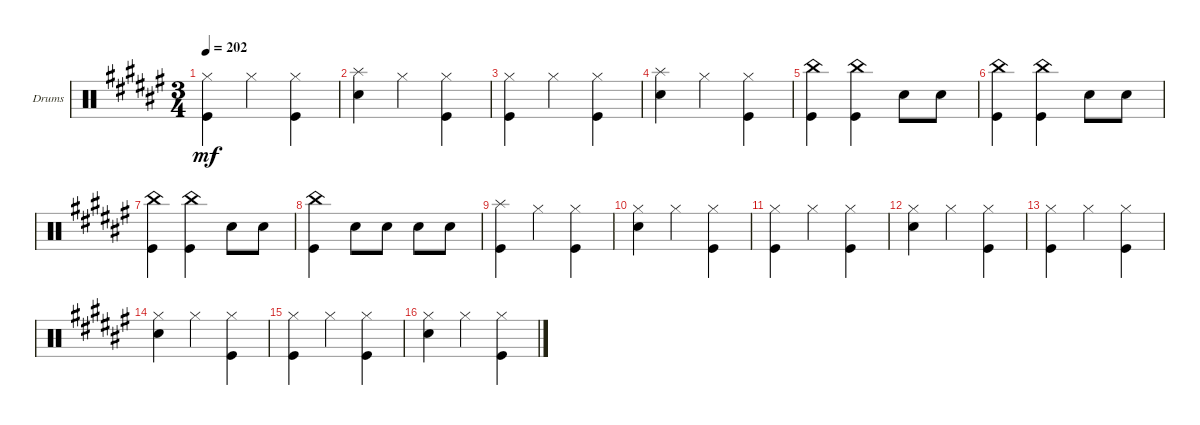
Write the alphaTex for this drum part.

\defaultSystemsLayout 4
\bracketExtendMode groupsimilarinstruments
\firstSystemTrackNameOrientation horizontal
\otherSystemsTrackNameOrientation horizontal
\track ("Drumkit" "Drums") {instrument percussion}
\staff {score}
\articulation defaults
\ts (3 4)
\tempo 202
\clef neutral
\ks f#
("Kick (hit)" "Hi-Hat (closed)").4{dy mf} "Hi-Hat (closed)".4 ("Kick (hit)" "Hi-Hat (closed)").4 |
("Snare (hit) 2" "Splash (hit)").4 "Hi-Hat (closed)".4 ("Kick (hit)" "Hi-Hat (closed)").4 |
("Kick (hit)" "Hi-Hat (closed)").4 "Hi-Hat (closed)".4 ("Kick (hit)" "Hi-Hat (closed)").4 |
("Snare (hit) 2" "Splash (hit)").4 "Hi-Hat (closed)".4 ("Kick (hit)" "Hi-Hat (closed)").4 |
("China (hit)" "Kick (hit)").4 ("China (hit)" "Kick (hit)").4 "Snare (hit) 2".8 "Snare (hit) 2".8 |
("China (hit)" "Kick (hit)").4 ("China (hit)" "Kick (hit)").4 "Snare (hit) 2".8 "Snare (hit) 2".8 |
("China (hit)" "Kick (hit)").4 ("China (hit)" "Kick (hit)").4 "Snare (hit) 2".8 "Snare (hit) 2".8 |
("China (hit)" "Kick (hit)").4 "Snare (hit) 2".8 "Snare (hit) 2".8 "Snare (hit) 2".8 "Snare (hit) 2".8 |
("Kick (hit)" "Splash (hit)").4 "Hi-Hat (closed)".4 ("Kick (hit)" "Hi-Hat (closed)").4 |
("Snare (hit) 2" "Hi-Hat (closed)").4 "Hi-Hat (closed)".4 ("Kick (hit)" "Hi-Hat (closed)").4 |
("Kick (hit)" "Hi-Hat (closed)").4 "Hi-Hat (closed)".4 ("Kick (hit)" "Hi-Hat (closed)").4 |
("Snare (hit) 2" "Hi-Hat (closed)").4 "Hi-Hat (closed)".4 ("Kick (hit)" "Hi-Hat (closed)").4 |
("Kick (hit)" "Hi-Hat (closed)").4 "Hi-Hat (closed)".4 ("Kick (hit)" "Hi-Hat (closed)").4 |
("Snare (hit) 2" "Hi-Hat (closed)").4 "Hi-Hat (closed)".4 ("Kick (hit)" "Hi-Hat (closed)").4 |
("Kick (hit)" "Hi-Hat (closed)").4 "Hi-Hat (closed)".4 ("Kick (hit)" "Hi-Hat (closed)").4 |
("Snare (hit) 2" "Hi-Hat (closed)").4 "Hi-Hat (closed)".4 ("Kick (hit)" "Hi-Hat (closed)").4
